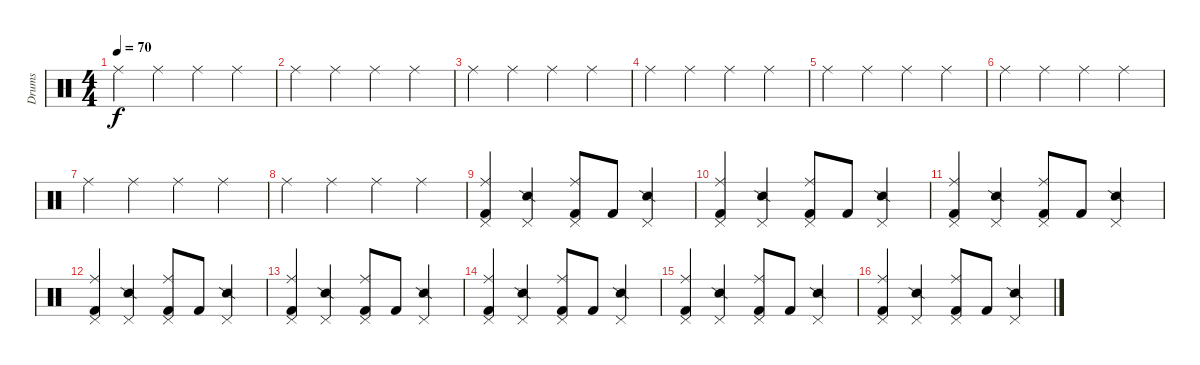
\track ("Drums" "Drums") {instrument percussion}
\staff {score}
\articulation defaults
\ts (4 4)
\tempo 70
\clef neutral
\ks c "Ride (middle)".4{dy f volume 3} "Ride (middle)".4 "Ride (middle)".4 "Ride (middle)".4
|
"Ride (middle)".4{volume 6} "Ride (middle)".4 "Ride (middle)".4 "Ride (middle)".4 |
"Ride (middle)".4{volume 10} "Ride (middle)".4 "Ride (middle)".4 "Ride (middle)".4 |
"Ride (middle)".4{volume 11} "Ride (middle)".4 "Ride (middle)".4 "Ride (middle)".4 |
"Ride (middle)".4{volume 13} "Ride (middle)".4 "Ride (middle)".4 "Ride (middle)".4 |
"Ride (middle)".4{volume 15} "Ride (middle)".4 "Ride (middle)".4 "Ride (middle)".4 |
"Ride (middle)".4 "Ride (middle)".4 "Ride (middle)".4 "Ride (middle)".4 |
"Ride (middle)".4 "Ride (middle)".4 "Ride (middle)".4 "Ride (middle)".4 |
("Ride (middle)" "Kick (hit) 2" "Pedal Hi-Hat (hit)").4{volume 16} ("Snare (side stick) 2" "Pedal Hi-Hat (hit)").4 ("Ride (middle)" "Kick (hit) 2" "Pedal Hi-Hat (hit)").8 "Kick (hit) 2".8 ("Snare (side stick) 2" "Pedal Hi-Hat (hit)").4 |
("Ride (middle)" "Kick (hit) 2" "Pedal Hi-Hat (hit)").4 ("Snare (side stick) 2" "Pedal Hi-Hat (hit)").4 ("Ride (middle)" "Kick (hit) 2" "Pedal Hi-Hat (hit)").8 "Kick (hit) 2".8 ("Snare (side stick) 2" "Pedal Hi-Hat (hit)").4 |
("Ride (middle)" "Kick (hit) 2" "Pedal Hi-Hat (hit)").4 ("Snare (side stick) 2" "Pedal Hi-Hat (hit)").4 ("Ride (middle)" "Kick (hit) 2" "Pedal Hi-Hat (hit)").8 "Kick (hit) 2".8 ("Snare (side stick) 2" "Pedal Hi-Hat (hit)").4 |
("Ride (middle)" "Kick (hit) 2" "Pedal Hi-Hat (hit)").4 ("Snare (side stick) 2" "Pedal Hi-Hat (hit)").4 ("Ride (middle)" "Kick (hit) 2" "Pedal Hi-Hat (hit)").8 "Kick (hit) 2".8 ("Snare (side stick) 2" "Pedal Hi-Hat (hit)").4 |
("Ride (middle)" "Kick (hit) 2" "Pedal Hi-Hat (hit)").4 ("Snare (side stick) 2" "Pedal Hi-Hat (hit)").4 ("Ride (middle)" "Kick (hit) 2" "Pedal Hi-Hat (hit)").8 "Kick (hit) 2".8 ("Snare (side stick) 2" "Pedal Hi-Hat (hit)").4 |
("Ride (middle)" "Kick (hit) 2" "Pedal Hi-Hat (hit)").4 ("Snare (side stick) 2" "Pedal Hi-Hat (hit)").4 ("Ride (middle)" "Kick (hit) 2" "Pedal Hi-Hat (hit)").8 "Kick (hit) 2".8 ("Snare (side stick) 2" "Pedal Hi-Hat (hit)").4 |
("Ride (middle)" "Kick (hit) 2" "Pedal Hi-Hat (hit)").4 ("Snare (side stick) 2" "Pedal Hi-Hat (hit)").4 ("Ride (middle)" "Kick (hit) 2" "Pedal Hi-Hat (hit)").8 "Kick (hit) 2".8 ("Snare (side stick) 2" "Pedal Hi-Hat (hit)").4 |
("Ride (middle)" "Kick (hit) 2" "Pedal Hi-Hat (hit)").4 ("Snare (side stick) 2" "Pedal Hi-Hat (hit)").4 ("Ride (middle)" "Kick (hit) 2" "Pedal Hi-Hat (hit)").8 "Kick (hit) 2".8 ("Snare (side stick) 2" "Pedal Hi-Hat (hit)").4
